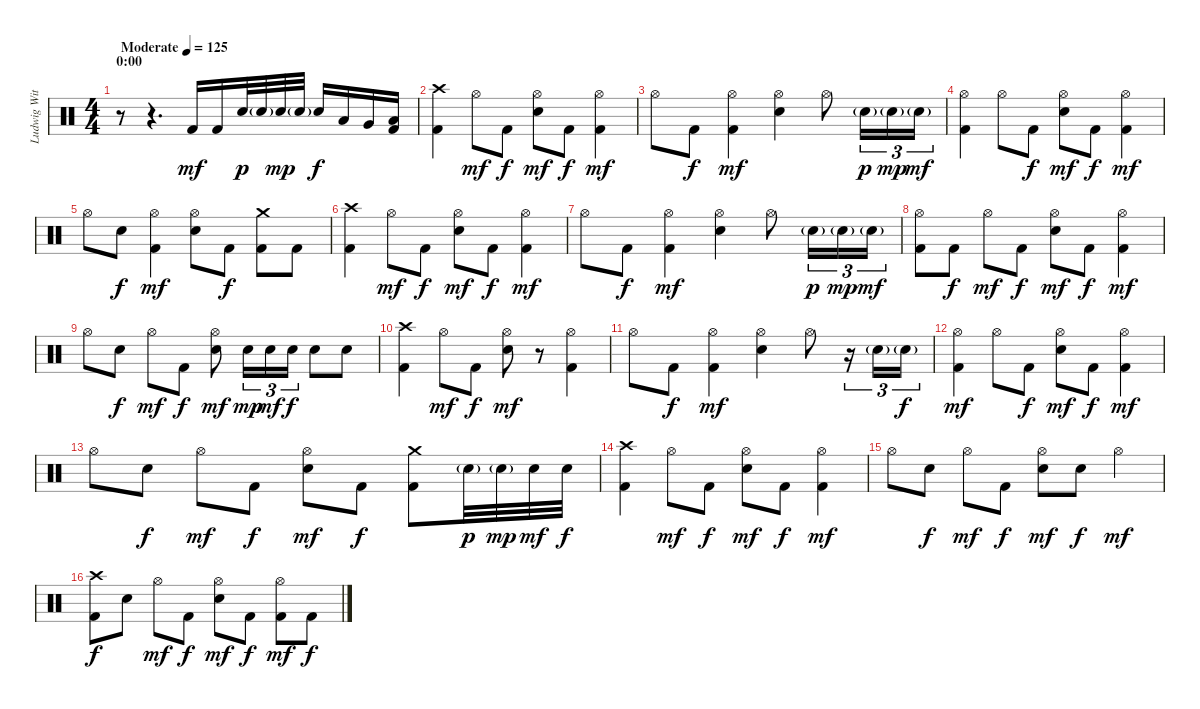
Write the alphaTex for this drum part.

\track ("Ludwig Witt" "Ludwig Wit") {instrument percussion}
\staff {score}
\articulation defaults
\ts (4 4)
\section ("" "0:00")
\tempo (125 "Moderate")
\clef neutral
\ks c
r.8{dy mf} r.4{d} "Kick (hit) 2".16 "Kick (hit) 2".16 "Electric Snare (hit)".32{dy p} "Electric Snare (hit)"{g}.32 "Electric Snare (hit)".32{dy mp} "Electric Snare (hit)"{g}.32 "Electric Snare (hit)".16{dy f} "Low Tom (hit)".16 "Very Low Tom (hit)".16 ("Low Floor Tom (hit)" "Kick (hit) 2").16 |
("Crash high (hit)" "Kick (hit) 2").4 "Hi-Hat (open)".8{dy mf} "Kick (hit) 2".8{dy f} ("Hi-Hat (open)" "Electric Snare (hit)").8{dy mf} "Kick (hit) 2".8{dy f} ("Hi-Hat (open)" "Kick (hit) 2").4{dy mf} |
"Hi-Hat (open)".8 "Kick (hit) 2".8{dy f} ("Hi-Hat (open)" "Kick (hit) 2").4{dy mf} ("Hi-Hat (open)" "Electric Snare (hit)").4 "Hi-Hat (open)".8 "Electric Snare (hit)"{g}.16{tu (3 2) dy p} "Electric Snare (hit)"{g}.16{tu (3 2) dy mp} "Electric Snare (hit)"{g}.16{tu (3 2) dy mf} |
("Hi-Hat (open)" "Kick (hit) 2").4 "Hi-Hat (open)".8 "Kick (hit) 2".8{dy f} ("Hi-Hat (open)" "Electric Snare (hit)").8{dy mf} "Kick (hit) 2".8{dy f} ("Hi-Hat (open)" "Kick (hit) 2").4{dy mf} |
"Hi-Hat (open)".8 "Electric Snare (hit)".8{dy f} ("Hi-Hat (open)" "Kick (hit) 2").4{dy mf} ("Hi-Hat (open)" "Electric Snare (hit)").8 "Kick (hit) 2".8{dy f} ("Crash medium (hit)" "Kick (hit) 2").8 "Kick (hit) 2".8 |
("Crash high (hit)" "Kick (hit) 2").4 "Hi-Hat (open)".8{dy mf} "Kick (hit) 2".8{dy f} ("Hi-Hat (open)" "Electric Snare (hit)").8{dy mf} "Kick (hit) 2".8{dy f} ("Hi-Hat (open)" "Kick (hit) 2").4{dy mf} |
"Hi-Hat (open)".8 "Kick (hit) 2".8{dy f} ("Hi-Hat (open)" "Kick (hit) 2").4{dy mf} ("Hi-Hat (open)" "Electric Snare (hit)").4 "Hi-Hat (open)".8 "Electric Snare (hit)"{g}.16{tu (3 2) dy p} "Electric Snare (hit)"{g}.16{tu (3 2) dy mp} "Electric Snare (hit)"{g}.16{tu (3 2) dy mf} |
("Hi-Hat (open)" "Kick (hit) 2").8 "Kick (hit) 2".8{dy f} "Hi-Hat (open)".8{dy mf} "Kick (hit) 2".8{dy f} ("Hi-Hat (open)" "Electric Snare (hit)").8{dy mf} "Kick (hit) 2".8{dy f} ("Hi-Hat (open)" "Kick (hit) 2").4{dy mf} |
"Hi-Hat (open)".8 "Electric Snare (hit)".8{dy f} "Hi-Hat (open)".8{dy mf} "Kick (hit) 2".8{dy f} ("Hi-Hat (open)" "Electric Snare (hit)").8{dy mf} "Electric Snare (hit)".16{tu (3 2) dy mp} "Electric Snare (hit)".16{tu (3 2) dy mf} "Electric Snare (hit)".16{tu (3 2) dy f} "Electric Snare (hit)".8 "Electric Snare (hit)".8 |
("Crash high (hit)" "Kick (hit) 2").4 "Hi-Hat (open)".8{dy mf} "Kick (hit) 2".8{dy f} ("Hi-Hat (open)" "Electric Snare (hit)").8{dy mf} r.8 ("Hi-Hat (open)" "Kick (hit) 2").4 |
"Hi-Hat (open)".8 "Kick (hit) 2".8{dy f} ("Hi-Hat (open)" "Kick (hit) 2").4{dy mf} ("Hi-Hat (open)" "Electric Snare (hit)").4 "Hi-Hat (open)".8 r.16{tu (3 2)} "Electric Snare (hit)"{g}.16{tu (3 2)} "Electric Snare (hit)"{g}.16{tu (3 2) dy f} |
("Hi-Hat (open)" "Kick (hit) 2").4{dy mf} "Hi-Hat (open)".8 "Kick (hit) 2".8{dy f} ("Hi-Hat (open)" "Electric Snare (hit)").8{dy mf} "Kick (hit) 2".8{dy f} ("Hi-Hat (open)" "Kick (hit) 2").4{dy mf} |
"Hi-Hat (open)".8 "Electric Snare (hit)".8{dy f} "Hi-Hat (open)".8{dy mf} "Kick (hit) 2".8{dy f} ("Hi-Hat (open)" "Electric Snare (hit)").8{dy mf} "Kick (hit) 2".8{dy f} ("Crash medium (hit)" "Kick (hit) 2").8 "Electric Snare (hit)"{g}.32{dy p} "Electric Snare (hit)"{g}.32{dy mp} "Electric Snare (hit)".32{dy mf} "Electric Snare (hit)".32{dy f} |
("Crash high (hit)" "Kick (hit) 2").4 "Hi-Hat (open)".8{dy mf} "Kick (hit) 2".8{dy f} ("Hi-Hat (open)" "Electric Snare (hit)").8{dy mf} "Kick (hit) 2".8{dy f} ("Hi-Hat (open)" "Kick (hit) 2").4{dy mf} |
"Hi-Hat (open)".8 "Electric Snare (hit)".8{dy f} "Hi-Hat (open)".8{dy mf} "Kick (hit) 2".8{dy f} ("Hi-Hat (open)" "Electric Snare (hit)").8{dy mf} "Electric Snare (hit)".8{dy f} "Hi-Hat (open)".4{dy mf} |
("Crash high (hit)" "Kick (hit) 2").8{dy f} "Electric Snare (hit)".8 "Hi-Hat (open)".8{dy mf} "Kick (hit) 2".8{dy f} ("Hi-Hat (open)" "Electric Snare (hit)").8{dy mf} "Kick (hit) 2".8{dy f} ("Hi-Hat (open)" "Kick (hit) 2").8{dy mf} "Kick (hit) 2".8{dy f}
